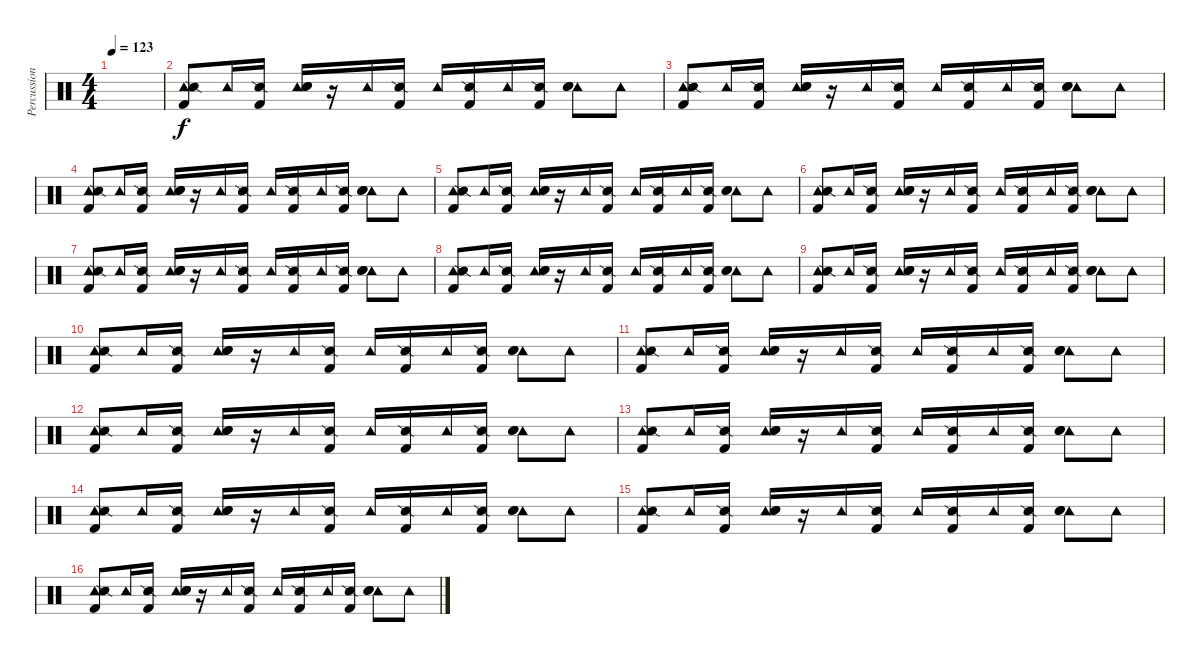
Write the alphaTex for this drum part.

\track ("Percussion" "Percussion") {instrument percussion}
\staff {score}
\articulation defaults
\ts (4 4)
\tempo 123
\clef neutral
\ks c
|
("Tambourine (hit)" "Snare (side stick) 2" "Kick (hit) 2").8 "Tambourine (hit)".16 ("Snare (side stick) 2" "Kick (hit) 2").16 ("Tambourine (hit)" "Electric Snare (hit)" "Snare (hit) 2").16 r.16 "Tambourine (hit)".16 ("Snare (side stick) 2" "Kick (hit) 2").16 "Tambourine (hit)".16 ("Snare (side stick) 2" "Kick (hit) 2").16 "Tambourine (hit)".16 ("Snare (side stick) 2" "Kick (hit) 2").16 ("Tambourine (hit)" "Electric Snare (hit)" "Snare (hit) 2").8 "Tambourine (hit)".8 |
("Tambourine (hit)" "Snare (side stick) 2" "Kick (hit) 2").8 "Tambourine (hit)".16 ("Snare (side stick) 2" "Kick (hit) 2").16 ("Tambourine (hit)" "Electric Snare (hit)" "Snare (hit) 2").16 r.16 "Tambourine (hit)".16 ("Snare (side stick) 2" "Kick (hit) 2").16 "Tambourine (hit)".16 ("Snare (side stick) 2" "Kick (hit) 2").16 "Tambourine (hit)".16 ("Snare (side stick) 2" "Kick (hit) 2").16 ("Tambourine (hit)" "Electric Snare (hit)" "Snare (hit) 2").8 "Tambourine (hit)".8 |
("Tambourine (hit)" "Snare (side stick) 2" "Kick (hit) 2").8 "Tambourine (hit)".16 ("Snare (side stick) 2" "Kick (hit) 2").16 ("Tambourine (hit)" "Electric Snare (hit)" "Snare (hit) 2").16 r.16 "Tambourine (hit)".16 ("Snare (side stick) 2" "Kick (hit) 2").16 "Tambourine (hit)".16 ("Snare (side stick) 2" "Kick (hit) 2").16 "Tambourine (hit)".16 ("Snare (side stick) 2" "Kick (hit) 2").16 ("Tambourine (hit)" "Electric Snare (hit)" "Snare (hit) 2").8 "Tambourine (hit)".8 |
("Tambourine (hit)" "Snare (side stick) 2" "Kick (hit) 2").8 "Tambourine (hit)".16 ("Snare (side stick) 2" "Kick (hit) 2").16 ("Tambourine (hit)" "Electric Snare (hit)" "Snare (hit) 2").16 r.16 "Tambourine (hit)".16 ("Snare (side stick) 2" "Kick (hit) 2").16 "Tambourine (hit)".16 ("Snare (side stick) 2" "Kick (hit) 2").16 "Tambourine (hit)".16 ("Snare (side stick) 2" "Kick (hit) 2").16 ("Tambourine (hit)" "Electric Snare (hit)" "Snare (hit) 2").8 "Tambourine (hit)".8 |
("Tambourine (hit)" "Snare (side stick) 2" "Kick (hit) 2").8 "Tambourine (hit)".16 ("Snare (side stick) 2" "Kick (hit) 2").16 ("Tambourine (hit)" "Electric Snare (hit)" "Snare (hit) 2").16 r.16 "Tambourine (hit)".16 ("Snare (side stick) 2" "Kick (hit) 2").16 "Tambourine (hit)".16 ("Snare (side stick) 2" "Kick (hit) 2").16 "Tambourine (hit)".16 ("Snare (side stick) 2" "Kick (hit) 2").16 ("Tambourine (hit)" "Electric Snare (hit)" "Snare (hit) 2").8 "Tambourine (hit)".8 |
("Tambourine (hit)" "Snare (side stick) 2" "Kick (hit) 2").8 "Tambourine (hit)".16 ("Snare (side stick) 2" "Kick (hit) 2").16 ("Tambourine (hit)" "Electric Snare (hit)" "Snare (hit) 2").16 r.16 "Tambourine (hit)".16 ("Snare (side stick) 2" "Kick (hit) 2").16 "Tambourine (hit)".16 ("Snare (side stick) 2" "Kick (hit) 2").16 "Tambourine (hit)".16 ("Snare (side stick) 2" "Kick (hit) 2").16 ("Tambourine (hit)" "Electric Snare (hit)" "Snare (hit) 2").8 "Tambourine (hit)".8 |
("Tambourine (hit)" "Snare (side stick) 2" "Kick (hit) 2").8 "Tambourine (hit)".16 ("Snare (side stick) 2" "Kick (hit) 2").16 ("Tambourine (hit)" "Electric Snare (hit)" "Snare (hit) 2").16 r.16 "Tambourine (hit)".16 ("Snare (side stick) 2" "Kick (hit) 2").16 "Tambourine (hit)".16 ("Snare (side stick) 2" "Kick (hit) 2").16 "Tambourine (hit)".16 ("Snare (side stick) 2" "Kick (hit) 2").16 ("Tambourine (hit)" "Electric Snare (hit)" "Snare (hit) 2").8 "Tambourine (hit)".8 |
("Tambourine (hit)" "Snare (side stick) 2" "Kick (hit) 2").8 "Tambourine (hit)".16 ("Snare (side stick) 2" "Kick (hit) 2").16 ("Tambourine (hit)" "Electric Snare (hit)" "Snare (hit) 2").16 r.16 "Tambourine (hit)".16 ("Snare (side stick) 2" "Kick (hit) 2").16 "Tambourine (hit)".16 ("Snare (side stick) 2" "Kick (hit) 2").16 "Tambourine (hit)".16 ("Snare (side stick) 2" "Kick (hit) 2").16 ("Tambourine (hit)" "Electric Snare (hit)" "Snare (hit) 2").8 "Tambourine (hit)".8 |
("Tambourine (hit)" "Snare (side stick) 2" "Kick (hit) 2").8 "Tambourine (hit)".16 ("Snare (side stick) 2" "Kick (hit) 2").16 ("Tambourine (hit)" "Electric Snare (hit)" "Snare (hit) 2").16 r.16 "Tambourine (hit)".16 ("Snare (side stick) 2" "Kick (hit) 2").16 "Tambourine (hit)".16 ("Snare (side stick) 2" "Kick (hit) 2").16 "Tambourine (hit)".16 ("Snare (side stick) 2" "Kick (hit) 2").16 ("Tambourine (hit)" "Electric Snare (hit)" "Snare (hit) 2").8 "Tambourine (hit)".8 |
("Tambourine (hit)" "Snare (side stick) 2" "Kick (hit) 2").8 "Tambourine (hit)".16 ("Snare (side stick) 2" "Kick (hit) 2").16 ("Tambourine (hit)" "Electric Snare (hit)" "Snare (hit) 2").16 r.16 "Tambourine (hit)".16 ("Snare (side stick) 2" "Kick (hit) 2").16 "Tambourine (hit)".16 ("Snare (side stick) 2" "Kick (hit) 2").16 "Tambourine (hit)".16 ("Snare (side stick) 2" "Kick (hit) 2").16 ("Tambourine (hit)" "Electric Snare (hit)" "Snare (hit) 2").8 "Tambourine (hit)".8 |
("Tambourine (hit)" "Snare (side stick) 2" "Kick (hit) 2").8 "Tambourine (hit)".16 ("Snare (side stick) 2" "Kick (hit) 2").16 ("Tambourine (hit)" "Electric Snare (hit)" "Snare (hit) 2").16 r.16 "Tambourine (hit)".16 ("Snare (side stick) 2" "Kick (hit) 2").16 "Tambourine (hit)".16 ("Snare (side stick) 2" "Kick (hit) 2").16 "Tambourine (hit)".16 ("Snare (side stick) 2" "Kick (hit) 2").16 ("Tambourine (hit)" "Electric Snare (hit)" "Snare (hit) 2").8 "Tambourine (hit)".8 |
("Tambourine (hit)" "Snare (side stick) 2" "Kick (hit) 2").8 "Tambourine (hit)".16 ("Snare (side stick) 2" "Kick (hit) 2").16 ("Tambourine (hit)" "Electric Snare (hit)" "Snare (hit) 2").16 r.16 "Tambourine (hit)".16 ("Snare (side stick) 2" "Kick (hit) 2").16 "Tambourine (hit)".16 ("Snare (side stick) 2" "Kick (hit) 2").16 "Tambourine (hit)".16 ("Snare (side stick) 2" "Kick (hit) 2").16 ("Tambourine (hit)" "Electric Snare (hit)" "Snare (hit) 2").8 "Tambourine (hit)".8 |
("Tambourine (hit)" "Snare (side stick) 2" "Kick (hit) 2").8 "Tambourine (hit)".16 ("Snare (side stick) 2" "Kick (hit) 2").16 ("Tambourine (hit)" "Electric Snare (hit)" "Snare (hit) 2").16 r.16 "Tambourine (hit)".16 ("Snare (side stick) 2" "Kick (hit) 2").16 "Tambourine (hit)".16 ("Snare (side stick) 2" "Kick (hit) 2").16 "Tambourine (hit)".16 ("Snare (side stick) 2" "Kick (hit) 2").16 ("Tambourine (hit)" "Electric Snare (hit)" "Snare (hit) 2").8 "Tambourine (hit)".8 |
("Tambourine (hit)" "Snare (side stick) 2" "Kick (hit) 2").8 "Tambourine (hit)".16 ("Snare (side stick) 2" "Kick (hit) 2").16 ("Tambourine (hit)" "Electric Snare (hit)" "Snare (hit) 2").16 r.16 "Tambourine (hit)".16 ("Snare (side stick) 2" "Kick (hit) 2").16 "Tambourine (hit)".16 ("Snare (side stick) 2" "Kick (hit) 2").16 "Tambourine (hit)".16 ("Snare (side stick) 2" "Kick (hit) 2").16 ("Tambourine (hit)" "Electric Snare (hit)" "Snare (hit) 2").8 "Tambourine (hit)".8 |
("Tambourine (hit)" "Snare (side stick) 2" "Kick (hit) 2").8 "Tambourine (hit)".16 ("Snare (side stick) 2" "Kick (hit) 2").16 ("Tambourine (hit)" "Electric Snare (hit)" "Snare (hit) 2").16 r.16 "Tambourine (hit)".16 ("Snare (side stick) 2" "Kick (hit) 2").16 "Tambourine (hit)".16 ("Snare (side stick) 2" "Kick (hit) 2").16 "Tambourine (hit)".16 ("Snare (side stick) 2" "Kick (hit) 2").16 ("Tambourine (hit)" "Electric Snare (hit)" "Snare (hit) 2").8 "Tambourine (hit)".8
